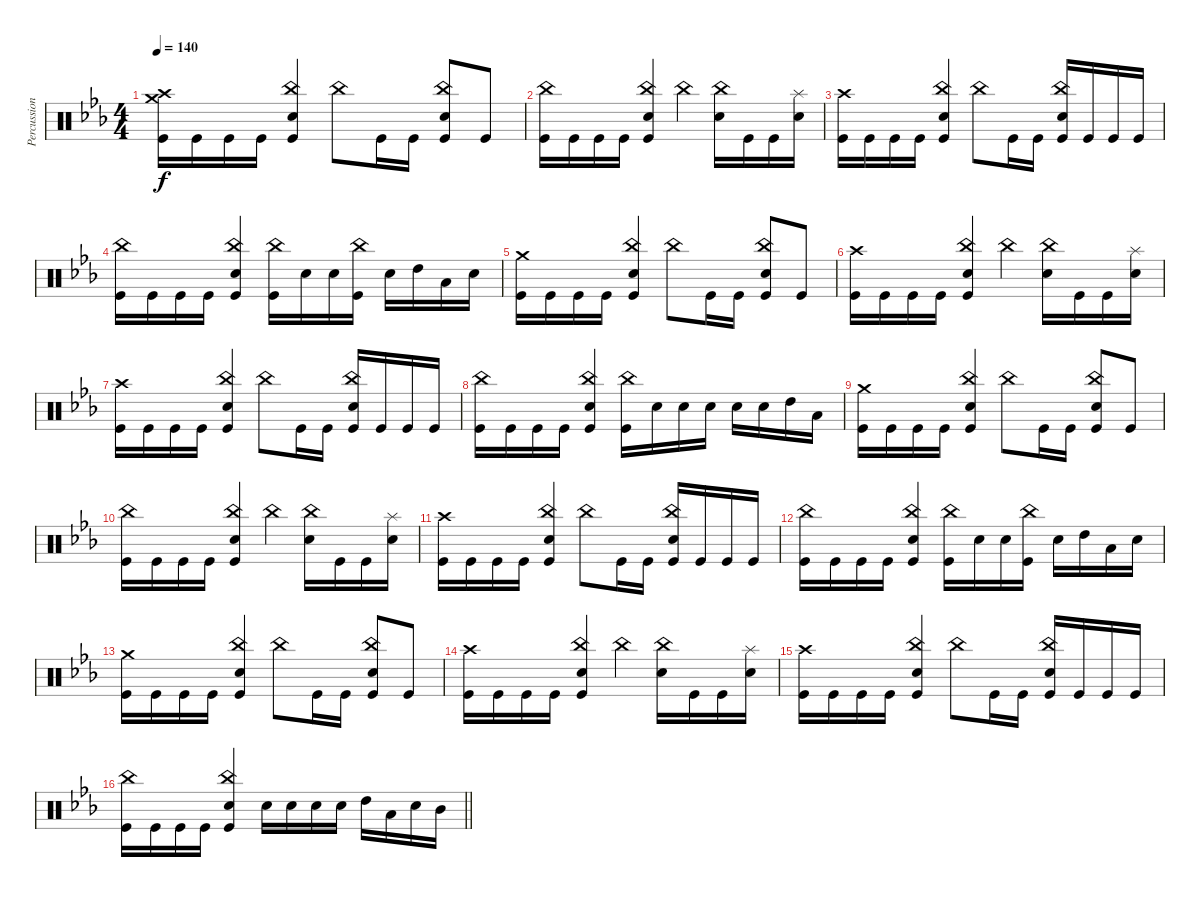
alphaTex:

\track ("Percussion" "Percussion") {instrument percussion}
\staff {score}
\articulation defaults
\ts (4 4)
\tempo 140
\clef neutral
\ks eb
("Crash high (hit)" "Crash medium (hit)" "Kick (hit)").16{dy f} "Kick (hit)".16 "Kick (hit)".16 "Kick (hit)".16 ("China (hit)" "Electric Snare (hit)" "Kick (hit)").4 "China (hit)".8 "Kick (hit)".16 "Kick (hit)".16 ("China (hit)" "Electric Snare (hit)" "Kick (hit)").8 "Kick (hit)".8 |
("China (hit)" "Kick (hit)").16 "Kick (hit)".16 "Kick (hit)".16 "Kick (hit)".16 ("China (hit)" "Electric Snare (hit)" "Kick (hit)").4 "China (hit)".4 ("China (hit)" "Electric Snare (hit)").16 "Kick (hit)".16 "Kick (hit)".16 ("Splash (hit)" "Electric Snare (hit)").16 |
("Crash high (hit)" "Kick (hit)").16 "Kick (hit)".16 "Kick (hit)".16 "Kick (hit)".16 ("China (hit)" "Electric Snare (hit)" "Kick (hit)").4 "China (hit)".8 "Kick (hit)".16 "Kick (hit)".16 ("China (hit)" "Electric Snare (hit)" "Kick (hit)").16 "Kick (hit)".16 "Kick (hit)".16 "Kick (hit)".16 |
("China (hit)" "Kick (hit)").16 "Kick (hit)".16 "Kick (hit)".16 "Kick (hit)".16 ("China (hit)" "Electric Snare (hit)" "Kick (hit)").4 ("China (hit)" "Kick (hit)").16 "Electric Snare (hit)".16 "Electric Snare (hit)".16 ("China (hit)" "Kick (hit)").16 "Electric Snare (hit)".16 "High Tom (hit)".16 "Low Tom (hit)".16 "Electric Snare (hit)".16 |
("Crash medium (hit)" "Kick (hit)").16 "Kick (hit)".16 "Kick (hit)".16 "Kick (hit)".16 ("China (hit)" "Electric Snare (hit)" "Kick (hit)").4 "China (hit)".8 "Kick (hit)".16 "Kick (hit)".16 ("China (hit)" "Electric Snare (hit)" "Kick (hit)").8 "Kick (hit)".8 |
("Crash high (hit)" "Kick (hit)").16 "Kick (hit)".16 "Kick (hit)".16 "Kick (hit)".16 ("China (hit)" "Electric Snare (hit)" "Kick (hit)").4 "China (hit)".4 ("China (hit)" "Electric Snare (hit)").16 "Kick (hit)".16 "Kick (hit)".16 ("Splash (hit)" "Electric Snare (hit)").16 |
("Crash high (hit)" "Kick (hit)").16 "Kick (hit)".16 "Kick (hit)".16 "Kick (hit)".16 ("China (hit)" "Electric Snare (hit)" "Kick (hit)").4 "China (hit)".8 "Kick (hit)".16 "Kick (hit)".16 ("China (hit)" "Electric Snare (hit)" "Kick (hit)").16 "Kick (hit)".16 "Kick (hit)".16 "Kick (hit)".16 |
("China (hit)" "Kick (hit)").16 "Kick (hit)".16 "Kick (hit)".16 "Kick (hit)".16 ("China (hit)" "Electric Snare (hit)" "Kick (hit)").4 ("China (hit)" "Kick (hit)").16 "Electric Snare (hit)".16 "Electric Snare (hit)".16 "Electric Snare (hit)".16 "Electric Snare (hit)".16 "Electric Snare (hit)".16 "High Tom (hit)".16 "Low Tom (hit)".16 |
("Crash medium (hit)" "Kick (hit)").16 "Kick (hit)".16 "Kick (hit)".16 "Kick (hit)".16 ("China (hit)" "Electric Snare (hit)" "Kick (hit)").4 "China (hit)".8 "Kick (hit)".16 "Kick (hit)".16 ("China (hit)" "Electric Snare (hit)" "Kick (hit)").8 "Kick (hit)".8 |
("China (hit)" "Kick (hit)").16 "Kick (hit)".16 "Kick (hit)".16 "Kick (hit)".16 ("China (hit)" "Electric Snare (hit)" "Kick (hit)").4 "China (hit)".4 ("China (hit)" "Electric Snare (hit)").16 "Kick (hit)".16 "Kick (hit)".16 ("Splash (hit)" "Electric Snare (hit)").16 |
("Crash high (hit)" "Kick (hit)").16 "Kick (hit)".16 "Kick (hit)".16 "Kick (hit)".16 ("China (hit)" "Electric Snare (hit)" "Kick (hit)").4 "China (hit)".8 "Kick (hit)".16 "Kick (hit)".16 ("China (hit)" "Electric Snare (hit)" "Kick (hit)").16 "Kick (hit)".16 "Kick (hit)".16 "Kick (hit)".16 |
("China (hit)" "Kick (hit)").16 "Kick (hit)".16 "Kick (hit)".16 "Kick (hit)".16 ("China (hit)" "Electric Snare (hit)" "Kick (hit)").4 ("China (hit)" "Kick (hit)").16 "Electric Snare (hit)".16 "Electric Snare (hit)".16 ("China (hit)" "Kick (hit)").16 "Electric Snare (hit)".16 "High Tom (hit)".16 "Low Tom (hit)".16 "Electric Snare (hit)".16 |
("Crash medium (hit)" "Kick (hit)").16 "Kick (hit)".16 "Kick (hit)".16 "Kick (hit)".16 ("China (hit)" "Electric Snare (hit)" "Kick (hit)").4 "China (hit)".8 "Kick (hit)".16 "Kick (hit)".16 ("China (hit)" "Electric Snare (hit)" "Kick (hit)").8 "Kick (hit)".8 |
("Crash high (hit)" "Kick (hit)").16 "Kick (hit)".16 "Kick (hit)".16 "Kick (hit)".16 ("China (hit)" "Electric Snare (hit)" "Kick (hit)").4 "China (hit)".4 ("China (hit)" "Electric Snare (hit)").16 "Kick (hit)".16 "Kick (hit)".16 ("Splash (hit)" "Electric Snare (hit)").16 |
("Crash high (hit)" "Kick (hit)").16 "Kick (hit)".16 "Kick (hit)".16 "Kick (hit)".16 ("China (hit)" "Electric Snare (hit)" "Kick (hit)").4 "China (hit)".8 "Kick (hit)".16 "Kick (hit)".16 ("China (hit)" "Electric Snare (hit)" "Kick (hit)").16 "Kick (hit)".16 "Kick (hit)".16 "Kick (hit)".16 |
\barLineRight lightlight
("China (hit)" "Kick (hit)").16 "Kick (hit)".16 "Kick (hit)".16 "Kick (hit)".16 ("China (hit)" "Electric Snare (hit)" "Kick (hit)").4 "Electric Snare (hit)".16 "Electric Snare (hit)".16 "Electric Snare (hit)".16 "Electric Snare (hit)".16 "High Tom (hit)".16 "Low Tom (hit)".16 "Electric Snare (hit)".16 "Mid Tom (hit)".16
